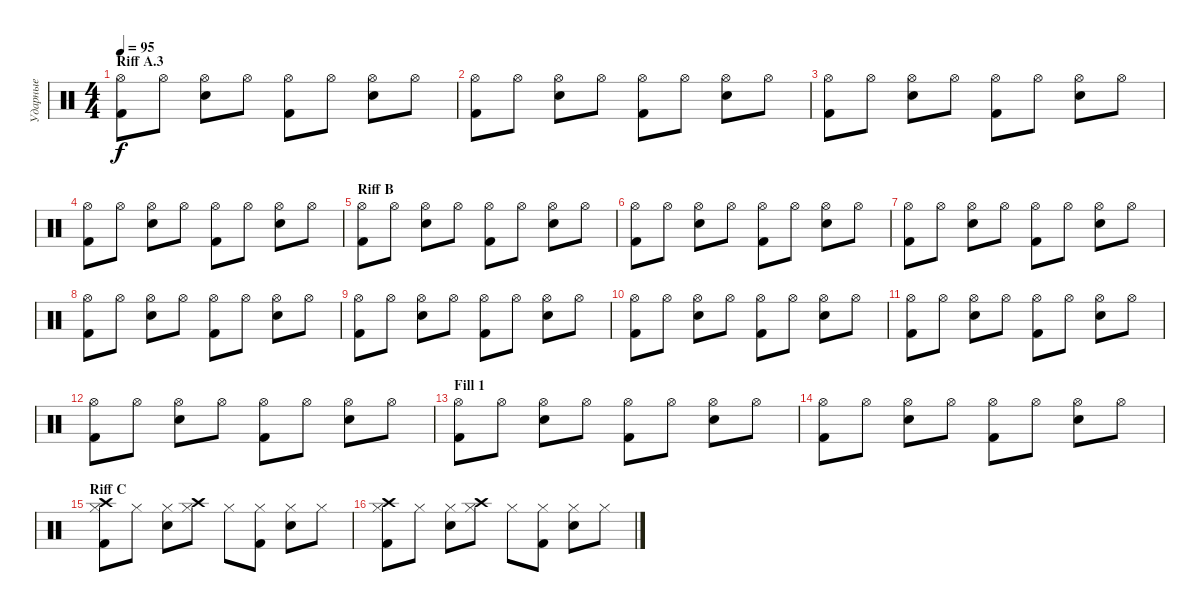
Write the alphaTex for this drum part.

\track ("Ударные" "Ударные") {instrument percussion}
\staff {score}
\articulation defaults
\ts (4 4)
\section ("" "Riff A.3")
\tempo 95
\clef neutral
\ks c
("Hi-Hat (open)" "Kick (hit) 2").8{dy f} "Hi-Hat (open)".8 ("Hi-Hat (open)" "Snare (hit) 2").8 "Hi-Hat (open)".8 ("Hi-Hat (open)" "Kick (hit) 2").8 "Hi-Hat (open)".8 ("Hi-Hat (open)" "Snare (hit) 2").8 "Hi-Hat (open)".8 |
("Hi-Hat (open)" "Kick (hit) 2").8 "Hi-Hat (open)".8 ("Hi-Hat (open)" "Snare (hit) 2").8 "Hi-Hat (open)".8 ("Hi-Hat (open)" "Kick (hit) 2").8 "Hi-Hat (open)".8 ("Hi-Hat (open)" "Snare (hit) 2").8 "Hi-Hat (open)".8 |
("Hi-Hat (open)" "Kick (hit) 2").8 "Hi-Hat (open)".8 ("Hi-Hat (open)" "Snare (hit) 2").8 "Hi-Hat (open)".8 ("Hi-Hat (open)" "Kick (hit) 2").8 "Hi-Hat (open)".8 ("Hi-Hat (open)" "Snare (hit) 2").8 "Hi-Hat (open)".8 |
("Hi-Hat (open)" "Kick (hit) 2").8 "Hi-Hat (open)".8 ("Hi-Hat (open)" "Snare (hit) 2").8 "Hi-Hat (open)".8 ("Hi-Hat (open)" "Kick (hit) 2").8 "Hi-Hat (open)".8 ("Hi-Hat (open)" "Snare (hit) 2").8 "Hi-Hat (open)".8 |
\section ("" "Riff B")
("Hi-Hat (open)" "Kick (hit) 2").8 "Hi-Hat (open)".8 ("Hi-Hat (open)" "Snare (hit) 2").8 "Hi-Hat (open)".8 ("Hi-Hat (open)" "Kick (hit) 2").8 "Hi-Hat (open)".8 ("Hi-Hat (open)" "Snare (hit) 2").8 "Hi-Hat (open)".8 |
("Hi-Hat (open)" "Kick (hit) 2").8 "Hi-Hat (open)".8 ("Hi-Hat (open)" "Snare (hit) 2").8 "Hi-Hat (open)".8 ("Hi-Hat (open)" "Kick (hit) 2").8 "Hi-Hat (open)".8 ("Hi-Hat (open)" "Snare (hit) 2").8 "Hi-Hat (open)".8 |
("Hi-Hat (open)" "Kick (hit) 2").8 "Hi-Hat (open)".8 ("Hi-Hat (open)" "Snare (hit) 2").8 "Hi-Hat (open)".8 ("Hi-Hat (open)" "Kick (hit) 2").8 "Hi-Hat (open)".8 ("Hi-Hat (open)" "Snare (hit) 2").8 "Hi-Hat (open)".8 |
("Hi-Hat (open)" "Kick (hit) 2").8 "Hi-Hat (open)".8 ("Hi-Hat (open)" "Snare (hit) 2").8 "Hi-Hat (open)".8 ("Hi-Hat (open)" "Kick (hit) 2").8 "Hi-Hat (open)".8 ("Hi-Hat (open)" "Snare (hit) 2").8 "Hi-Hat (open)".8 |
("Hi-Hat (open)" "Kick (hit) 2").8 "Hi-Hat (open)".8 ("Hi-Hat (open)" "Snare (hit) 2").8 "Hi-Hat (open)".8 ("Hi-Hat (open)" "Kick (hit) 2").8 "Hi-Hat (open)".8 ("Hi-Hat (open)" "Snare (hit) 2").8 "Hi-Hat (open)".8 |
("Hi-Hat (open)" "Kick (hit) 2").8 "Hi-Hat (open)".8 ("Hi-Hat (open)" "Snare (hit) 2").8 "Hi-Hat (open)".8 ("Hi-Hat (open)" "Kick (hit) 2").8 "Hi-Hat (open)".8 ("Hi-Hat (open)" "Snare (hit) 2").8 "Hi-Hat (open)".8 |
("Hi-Hat (open)" "Kick (hit) 2").8 "Hi-Hat (open)".8 ("Hi-Hat (open)" "Snare (hit) 2").8 "Hi-Hat (open)".8 ("Hi-Hat (open)" "Kick (hit) 2").8 "Hi-Hat (open)".8 ("Hi-Hat (open)" "Snare (hit) 2").8 "Hi-Hat (open)".8 |
("Hi-Hat (open)" "Kick (hit) 2").8 "Hi-Hat (open)".8 ("Hi-Hat (open)" "Snare (hit) 2").8 "Hi-Hat (open)".8 ("Hi-Hat (open)" "Kick (hit) 2").8 "Hi-Hat (open)".8 ("Hi-Hat (open)" "Snare (hit) 2").8 "Hi-Hat (open)".8 |
\section ("" "Fill 1")
("Hi-Hat (open)" "Kick (hit) 2").8 "Hi-Hat (open)".8 ("Hi-Hat (open)" "Snare (hit) 2").8 "Hi-Hat (open)".8 ("Hi-Hat (open)" "Kick (hit) 2").8 "Hi-Hat (open)".8 ("Hi-Hat (open)" "Snare (hit) 2").8 "Hi-Hat (open)".8 |
("Hi-Hat (open)" "Kick (hit) 2").8 "Hi-Hat (open)".8 ("Hi-Hat (open)" "Snare (hit) 2").8 "Hi-Hat (open)".8 ("Hi-Hat (open)" "Kick (hit) 2").8 "Hi-Hat (open)".8 ("Hi-Hat (open)" "Snare (hit) 2").8 "Hi-Hat (open)".8 |
\section ("" "Riff C")
("Crash high (hit)" "Hi-Hat (closed)" "Kick (hit) 2").8 "Hi-Hat (closed)".8 ("Hi-Hat (closed)" "Snare (hit) 2").8 ("Crash high (hit)" "Hi-Hat (closed)").8 "Hi-Hat (closed)".8 ("Hi-Hat (closed)" "Kick (hit) 2").8 ("Hi-Hat (closed)" "Snare (hit) 2").8 "Hi-Hat (closed)".8 |
("Crash high (hit)" "Hi-Hat (closed)" "Kick (hit) 2").8 "Hi-Hat (closed)".8 ("Hi-Hat (closed)" "Snare (hit) 2").8 ("Crash high (hit)" "Hi-Hat (closed)").8 "Hi-Hat (closed)".8 ("Hi-Hat (closed)" "Kick (hit) 2").8 ("Hi-Hat (closed)" "Snare (hit) 2").8 "Hi-Hat (closed)".8
